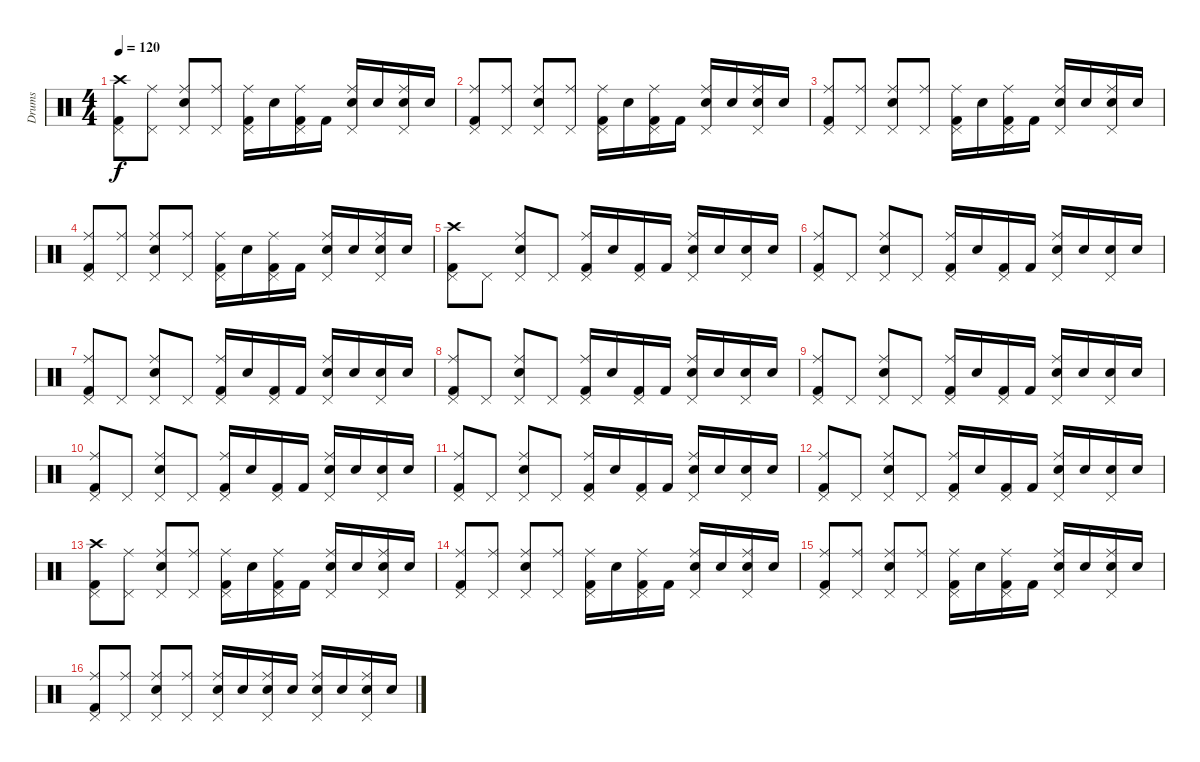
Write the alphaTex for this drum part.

\track ("Drums" "Drums") {instrument percussion}
\staff {score}
\articulation defaults
\ts (4 4)
\tempo 120
\clef neutral
\ks c
("Crash high (hit)" "Kick (hit) 2" "Pedal Hi-Hat (hit)").8{dy f} ("Ride (middle)" "Pedal Hi-Hat (hit)").8 ("Ride (middle)" "Electric Snare (hit)" "Pedal Hi-Hat (hit)").8 ("Ride (middle)" "Pedal Hi-Hat (hit)").8 ("Ride (middle)" "Kick (hit) 2" "Pedal Hi-Hat (hit)").16 "Electric Snare (hit)".16 ("Ride (middle)" "Kick (hit) 2" "Pedal Hi-Hat (hit)").16 "Kick (hit) 2".16 ("Ride (middle)" "Electric Snare (hit)" "Pedal Hi-Hat (hit)").16 "Electric Snare (hit)".16 ("Ride (middle)" "Electric Snare (hit)" "Pedal Hi-Hat (hit)").16 "Electric Snare (hit)".16 |
("Ride (middle)" "Kick (hit) 2" "Pedal Hi-Hat (hit)").8 ("Ride (middle)" "Pedal Hi-Hat (hit)").8 ("Ride (middle)" "Electric Snare (hit)" "Pedal Hi-Hat (hit)").8 ("Ride (middle)" "Pedal Hi-Hat (hit)").8 ("Ride (middle)" "Kick (hit) 2" "Pedal Hi-Hat (hit)").16 "Electric Snare (hit)".16 ("Ride (middle)" "Kick (hit) 2" "Pedal Hi-Hat (hit)").16 "Kick (hit) 2".16 ("Ride (middle)" "Electric Snare (hit)" "Pedal Hi-Hat (hit)").16 "Electric Snare (hit)".16 ("Ride (middle)" "Electric Snare (hit)" "Pedal Hi-Hat (hit)").16 "Electric Snare (hit)".16 |
("Ride (middle)" "Kick (hit) 2" "Pedal Hi-Hat (hit)").8 ("Ride (middle)" "Pedal Hi-Hat (hit)").8 ("Ride (middle)" "Electric Snare (hit)" "Pedal Hi-Hat (hit)").8 ("Ride (middle)" "Pedal Hi-Hat (hit)").8 ("Ride (middle)" "Kick (hit) 2" "Pedal Hi-Hat (hit)").16 "Electric Snare (hit)".16 ("Ride (middle)" "Kick (hit) 2" "Pedal Hi-Hat (hit)").16 "Kick (hit) 2".16 ("Ride (middle)" "Electric Snare (hit)" "Pedal Hi-Hat (hit)").16 "Electric Snare (hit)".16 ("Ride (middle)" "Electric Snare (hit)" "Pedal Hi-Hat (hit)").16 "Electric Snare (hit)".16 |
("Ride (middle)" "Kick (hit) 2" "Pedal Hi-Hat (hit)").8 ("Ride (middle)" "Pedal Hi-Hat (hit)").8 ("Ride (middle)" "Electric Snare (hit)" "Pedal Hi-Hat (hit)").8 ("Ride (middle)" "Pedal Hi-Hat (hit)").8 ("Ride (middle)" "Kick (hit) 2" "Pedal Hi-Hat (hit)").16 "Electric Snare (hit)".16 ("Ride (middle)" "Kick (hit) 2" "Pedal Hi-Hat (hit)").16 "Kick (hit) 2".16 ("Ride (middle)" "Electric Snare (hit)" "Pedal Hi-Hat (hit)").16 "Electric Snare (hit)".16 ("Ride (middle)" "Electric Snare (hit)" "Pedal Hi-Hat (hit)").16 "Electric Snare (hit)".16 |
("Crash high (hit)" "Kick (hit) 2" "Pedal Hi-Hat (hit)").8 "Pedal Hi-Hat (hit)".8 ("Ride (middle)" "Electric Snare (hit)" "Pedal Hi-Hat (hit)").8 "Pedal Hi-Hat (hit)".8 ("Ride (middle)" "Kick (hit) 2" "Pedal Hi-Hat (hit)").16 "Electric Snare (hit)".16 ("Kick (hit) 2" "Pedal Hi-Hat (hit)").16 "Kick (hit) 2".16 ("Ride (middle)" "Electric Snare (hit)" "Pedal Hi-Hat (hit)").16 "Electric Snare (hit)".16 ("Electric Snare (hit)" "Pedal Hi-Hat (hit)").16 "Electric Snare (hit)".16 |
("Ride (middle)" "Kick (hit) 2" "Pedal Hi-Hat (hit)").8 "Pedal Hi-Hat (hit)".8 ("Ride (middle)" "Electric Snare (hit)" "Pedal Hi-Hat (hit)").8 "Pedal Hi-Hat (hit)".8 ("Ride (middle)" "Kick (hit) 2" "Pedal Hi-Hat (hit)").16 "Electric Snare (hit)".16 ("Kick (hit) 2" "Pedal Hi-Hat (hit)").16 "Kick (hit) 2".16 ("Ride (middle)" "Electric Snare (hit)" "Pedal Hi-Hat (hit)").16 "Electric Snare (hit)".16 ("Electric Snare (hit)" "Pedal Hi-Hat (hit)").16 "Electric Snare (hit)".16 |
("Ride (middle)" "Kick (hit) 2" "Pedal Hi-Hat (hit)").8 "Pedal Hi-Hat (hit)".8 ("Ride (middle)" "Electric Snare (hit)" "Pedal Hi-Hat (hit)").8 "Pedal Hi-Hat (hit)".8 ("Ride (middle)" "Kick (hit) 2" "Pedal Hi-Hat (hit)").16 "Electric Snare (hit)".16 ("Kick (hit) 2" "Pedal Hi-Hat (hit)").16 "Kick (hit) 2".16 ("Ride (middle)" "Electric Snare (hit)" "Pedal Hi-Hat (hit)").16 "Electric Snare (hit)".16 ("Electric Snare (hit)" "Pedal Hi-Hat (hit)").16 "Electric Snare (hit)".16 |
("Ride (middle)" "Kick (hit) 2" "Pedal Hi-Hat (hit)").8 "Pedal Hi-Hat (hit)".8 ("Ride (middle)" "Electric Snare (hit)" "Pedal Hi-Hat (hit)").8 "Pedal Hi-Hat (hit)".8 ("Ride (middle)" "Kick (hit) 2" "Pedal Hi-Hat (hit)").16 "Electric Snare (hit)".16 ("Kick (hit) 2" "Pedal Hi-Hat (hit)").16 "Kick (hit) 2".16 ("Ride (middle)" "Electric Snare (hit)" "Pedal Hi-Hat (hit)").16 "Electric Snare (hit)".16 ("Electric Snare (hit)" "Pedal Hi-Hat (hit)").16 "Electric Snare (hit)".16 |
("Ride (middle)" "Kick (hit) 2" "Pedal Hi-Hat (hit)").8 "Pedal Hi-Hat (hit)".8 ("Ride (middle)" "Electric Snare (hit)" "Pedal Hi-Hat (hit)").8 "Pedal Hi-Hat (hit)".8 ("Ride (middle)" "Kick (hit) 2" "Pedal Hi-Hat (hit)").16 "Electric Snare (hit)".16 ("Kick (hit) 2" "Pedal Hi-Hat (hit)").16 "Kick (hit) 2".16 ("Ride (middle)" "Electric Snare (hit)" "Pedal Hi-Hat (hit)").16 "Electric Snare (hit)".16 ("Electric Snare (hit)" "Pedal Hi-Hat (hit)").16 "Electric Snare (hit)".16 |
("Ride (middle)" "Kick (hit) 2" "Pedal Hi-Hat (hit)").8 "Pedal Hi-Hat (hit)".8 ("Ride (middle)" "Electric Snare (hit)" "Pedal Hi-Hat (hit)").8 "Pedal Hi-Hat (hit)".8 ("Ride (middle)" "Kick (hit) 2" "Pedal Hi-Hat (hit)").16 "Electric Snare (hit)".16 ("Kick (hit) 2" "Pedal Hi-Hat (hit)").16 "Kick (hit) 2".16 ("Ride (middle)" "Electric Snare (hit)" "Pedal Hi-Hat (hit)").16 "Electric Snare (hit)".16 ("Electric Snare (hit)" "Pedal Hi-Hat (hit)").16 "Electric Snare (hit)".16 |
("Ride (middle)" "Kick (hit) 2" "Pedal Hi-Hat (hit)").8 "Pedal Hi-Hat (hit)".8 ("Ride (middle)" "Electric Snare (hit)" "Pedal Hi-Hat (hit)").8 "Pedal Hi-Hat (hit)".8 ("Ride (middle)" "Kick (hit) 2" "Pedal Hi-Hat (hit)").16 "Electric Snare (hit)".16 ("Kick (hit) 2" "Pedal Hi-Hat (hit)").16 "Kick (hit) 2".16 ("Ride (middle)" "Electric Snare (hit)" "Pedal Hi-Hat (hit)").16 "Electric Snare (hit)".16 ("Electric Snare (hit)" "Pedal Hi-Hat (hit)").16 "Electric Snare (hit)".16 |
("Ride (middle)" "Kick (hit) 2" "Pedal Hi-Hat (hit)").8 "Pedal Hi-Hat (hit)".8 ("Ride (middle)" "Electric Snare (hit)" "Pedal Hi-Hat (hit)").8 "Pedal Hi-Hat (hit)".8 ("Ride (middle)" "Kick (hit) 2" "Pedal Hi-Hat (hit)").16 "Electric Snare (hit)".16 ("Kick (hit) 2" "Pedal Hi-Hat (hit)").16 "Kick (hit) 2".16 ("Ride (middle)" "Electric Snare (hit)" "Pedal Hi-Hat (hit)").16 "Electric Snare (hit)".16 ("Electric Snare (hit)" "Pedal Hi-Hat (hit)").16 "Electric Snare (hit)".16 |
("Crash high (hit)" "Kick (hit) 2" "Pedal Hi-Hat (hit)").8 ("Ride (middle)" "Pedal Hi-Hat (hit)").8 ("Ride (middle)" "Electric Snare (hit)" "Pedal Hi-Hat (hit)").8 ("Ride (middle)" "Pedal Hi-Hat (hit)").8 ("Ride (middle)" "Kick (hit) 2" "Pedal Hi-Hat (hit)").16 "Electric Snare (hit)".16 ("Ride (middle)" "Kick (hit) 2" "Pedal Hi-Hat (hit)").16 "Kick (hit) 2".16 ("Ride (middle)" "Electric Snare (hit)" "Pedal Hi-Hat (hit)").16 "Electric Snare (hit)".16 ("Ride (middle)" "Electric Snare (hit)" "Pedal Hi-Hat (hit)").16 "Electric Snare (hit)".16 |
("Ride (middle)" "Kick (hit) 2" "Pedal Hi-Hat (hit)").8 ("Ride (middle)" "Pedal Hi-Hat (hit)").8 ("Ride (middle)" "Electric Snare (hit)" "Pedal Hi-Hat (hit)").8 ("Ride (middle)" "Pedal Hi-Hat (hit)").8 ("Ride (middle)" "Kick (hit) 2" "Pedal Hi-Hat (hit)").16 "Electric Snare (hit)".16 ("Ride (middle)" "Kick (hit) 2" "Pedal Hi-Hat (hit)").16 "Kick (hit) 2".16 ("Ride (middle)" "Electric Snare (hit)" "Pedal Hi-Hat (hit)").16 "Electric Snare (hit)".16 ("Ride (middle)" "Electric Snare (hit)" "Pedal Hi-Hat (hit)").16 "Electric Snare (hit)".16 |
("Ride (middle)" "Kick (hit) 2" "Pedal Hi-Hat (hit)").8 ("Ride (middle)" "Pedal Hi-Hat (hit)").8 ("Ride (middle)" "Electric Snare (hit)" "Pedal Hi-Hat (hit)").8 ("Ride (middle)" "Pedal Hi-Hat (hit)").8 ("Ride (middle)" "Kick (hit) 2" "Pedal Hi-Hat (hit)").16 "Electric Snare (hit)".16 ("Ride (middle)" "Kick (hit) 2" "Pedal Hi-Hat (hit)").16 "Kick (hit) 2".16 ("Ride (middle)" "Electric Snare (hit)" "Pedal Hi-Hat (hit)").16 "Electric Snare (hit)".16 ("Ride (middle)" "Electric Snare (hit)" "Pedal Hi-Hat (hit)").16 "Electric Snare (hit)".16 |
("Ride (middle)" "Kick (hit) 2" "Pedal Hi-Hat (hit)").8 ("Ride (middle)" "Pedal Hi-Hat (hit)").8 ("Ride (middle)" "Electric Snare (hit)" "Pedal Hi-Hat (hit)").8 ("Ride (middle)" "Pedal Hi-Hat (hit)").8 ("Ride (middle)" "Electric Snare (hit)" "Pedal Hi-Hat (hit)").16 "Electric Snare (hit)".16 ("Ride (middle)" "Electric Snare (hit)" "Pedal Hi-Hat (hit)").16 "Electric Snare (hit)".16 ("Ride (middle)" "Electric Snare (hit)" "Pedal Hi-Hat (hit)").16 "Electric Snare (hit)".16 ("Ride (middle)" "Electric Snare (hit)" "Pedal Hi-Hat (hit)").16 "Electric Snare (hit)".16
